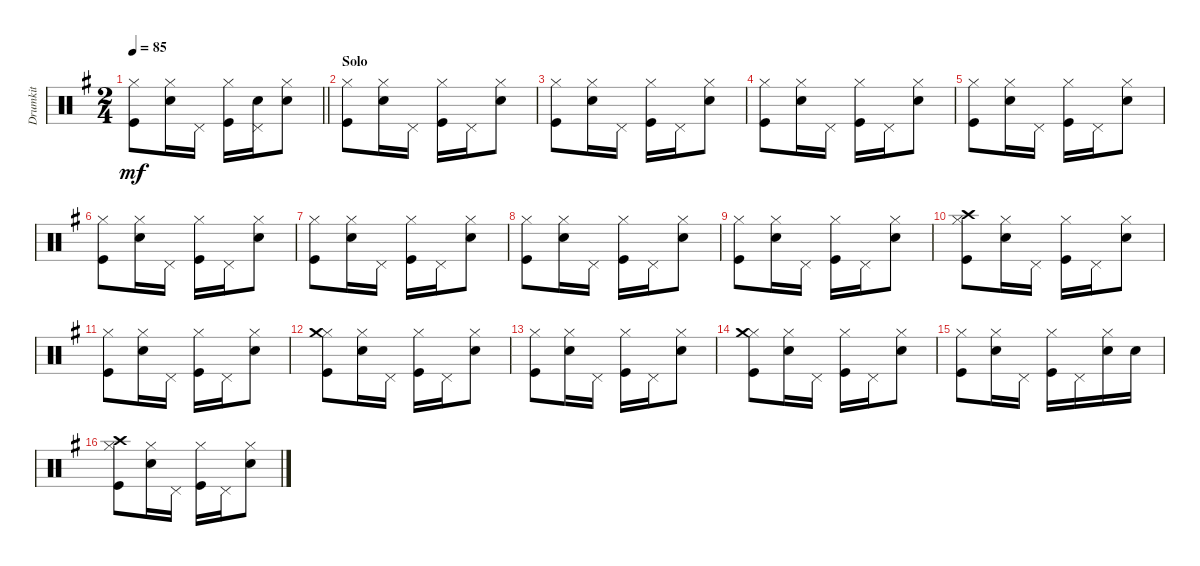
\track ("Drumkit" "Drumkit") {instrument percussion}
\staff {score}
\articulation defaults
\ts (2 4)
\tempo 85
\clef neutral
\barLineRight lightlight
\ks g
("Kick (hit)" "Hi-Hat (closed)").8{dy mf} ("Snare (hit) 2" "Hi-Hat (closed)").16 "Pedal Hi-Hat (hit)".16 ("Kick (hit)" "Hi-Hat (closed)").16 ("Pedal Hi-Hat (hit)" "Snare (hit) 2").16 ("Snare (hit) 2" "Hi-Hat (closed)").8 |
\section ("" "Solo")
("Kick (hit)" "Hi-Hat (closed)").8 ("Snare (hit) 2" "Hi-Hat (closed)").16 "Pedal Hi-Hat (hit)".16 ("Kick (hit)" "Hi-Hat (closed)").16 "Pedal Hi-Hat (hit)".16 ("Snare (hit) 2" "Hi-Hat (closed)").8 |
("Kick (hit)" "Hi-Hat (closed)").8 ("Snare (hit) 2" "Hi-Hat (closed)").16 "Pedal Hi-Hat (hit)".16 ("Kick (hit)" "Hi-Hat (closed)").16 "Pedal Hi-Hat (hit)".16 ("Snare (hit) 2" "Hi-Hat (closed)").8 |
("Kick (hit)" "Hi-Hat (closed)").8 ("Snare (hit) 2" "Hi-Hat (closed)").16 "Pedal Hi-Hat (hit)".16 ("Kick (hit)" "Hi-Hat (closed)").16 "Pedal Hi-Hat (hit)".16 ("Snare (hit) 2" "Hi-Hat (closed)").8 |
("Kick (hit)" "Hi-Hat (closed)").8 ("Snare (hit) 2" "Hi-Hat (closed)").16 "Pedal Hi-Hat (hit)".16 ("Kick (hit)" "Hi-Hat (closed)").16 "Pedal Hi-Hat (hit)".16 ("Snare (hit) 2" "Hi-Hat (closed)").8 |
("Kick (hit)" "Hi-Hat (closed)").8 ("Snare (hit) 2" "Hi-Hat (closed)").16 "Pedal Hi-Hat (hit)".16 ("Kick (hit)" "Hi-Hat (closed)").16 "Pedal Hi-Hat (hit)".16 ("Snare (hit) 2" "Hi-Hat (closed)").8 |
("Kick (hit)" "Hi-Hat (closed)").8 ("Snare (hit) 2" "Hi-Hat (closed)").16 "Pedal Hi-Hat (hit)".16 ("Kick (hit)" "Hi-Hat (closed)").16 "Pedal Hi-Hat (hit)".16 ("Snare (hit) 2" "Hi-Hat (closed)").8 |
("Kick (hit)" "Hi-Hat (closed)").8 ("Snare (hit) 2" "Hi-Hat (closed)").16 "Pedal Hi-Hat (hit)".16 ("Kick (hit)" "Hi-Hat (closed)").16 "Pedal Hi-Hat (hit)".16 ("Snare (hit) 2" "Hi-Hat (closed)").8 |
("Kick (hit)" "Hi-Hat (closed)").8 ("Snare (hit) 2" "Hi-Hat (closed)").16 "Pedal Hi-Hat (hit)".16 ("Kick (hit)" "Hi-Hat (closed)").16 "Pedal Hi-Hat (hit)".16 ("Snare (hit) 2" "Hi-Hat (closed)").8 |
("Kick (hit)" "Hi-Hat (closed)" "Crash high (hit)").8 ("Snare (hit) 2" "Hi-Hat (closed)").16 "Pedal Hi-Hat (hit)".16 ("Kick (hit)" "Hi-Hat (closed)").16 "Pedal Hi-Hat (hit)".16 ("Snare (hit) 2" "Hi-Hat (closed)").8 |
("Kick (hit)" "Hi-Hat (closed)").8 ("Snare (hit) 2" "Hi-Hat (closed)").16 "Pedal Hi-Hat (hit)".16 ("Kick (hit)" "Hi-Hat (closed)").16 "Pedal Hi-Hat (hit)".16 ("Snare (hit) 2" "Hi-Hat (closed)").8 |
("Kick (hit)" "Hi-Hat (closed)" "Crash medium (hit)").8 ("Snare (hit) 2" "Hi-Hat (closed)").16 "Pedal Hi-Hat (hit)".16 ("Kick (hit)" "Hi-Hat (closed)").16 "Pedal Hi-Hat (hit)".16 ("Snare (hit) 2" "Hi-Hat (closed)").8 |
("Kick (hit)" "Hi-Hat (closed)").8 ("Snare (hit) 2" "Hi-Hat (closed)").16 "Pedal Hi-Hat (hit)".16 ("Kick (hit)" "Hi-Hat (closed)").16 "Pedal Hi-Hat (hit)".16 ("Snare (hit) 2" "Hi-Hat (closed)").8 |
("Kick (hit)" "Hi-Hat (closed)" "Crash medium (hit)").8 ("Snare (hit) 2" "Hi-Hat (closed)").16 "Pedal Hi-Hat (hit)".16 ("Kick (hit)" "Hi-Hat (closed)").16 "Pedal Hi-Hat (hit)".16 ("Snare (hit) 2" "Hi-Hat (closed)").8 |
("Kick (hit)" "Hi-Hat (closed)").8 ("Snare (hit) 2" "Hi-Hat (closed)").16 "Pedal Hi-Hat (hit)".16 ("Kick (hit)" "Hi-Hat (closed)").16 "Pedal Hi-Hat (hit)".16 ("Snare (hit) 2" "Hi-Hat (closed)").16 "Snare (hit) 2".16 |
("Kick (hit)" "Hi-Hat (closed)" "Crash high (hit)").8 ("Snare (hit) 2" "Hi-Hat (closed)").16 "Pedal Hi-Hat (hit)".16 ("Kick (hit)" "Hi-Hat (closed)").16 "Pedal Hi-Hat (hit)".16 ("Snare (hit) 2" "Hi-Hat (closed)").8
